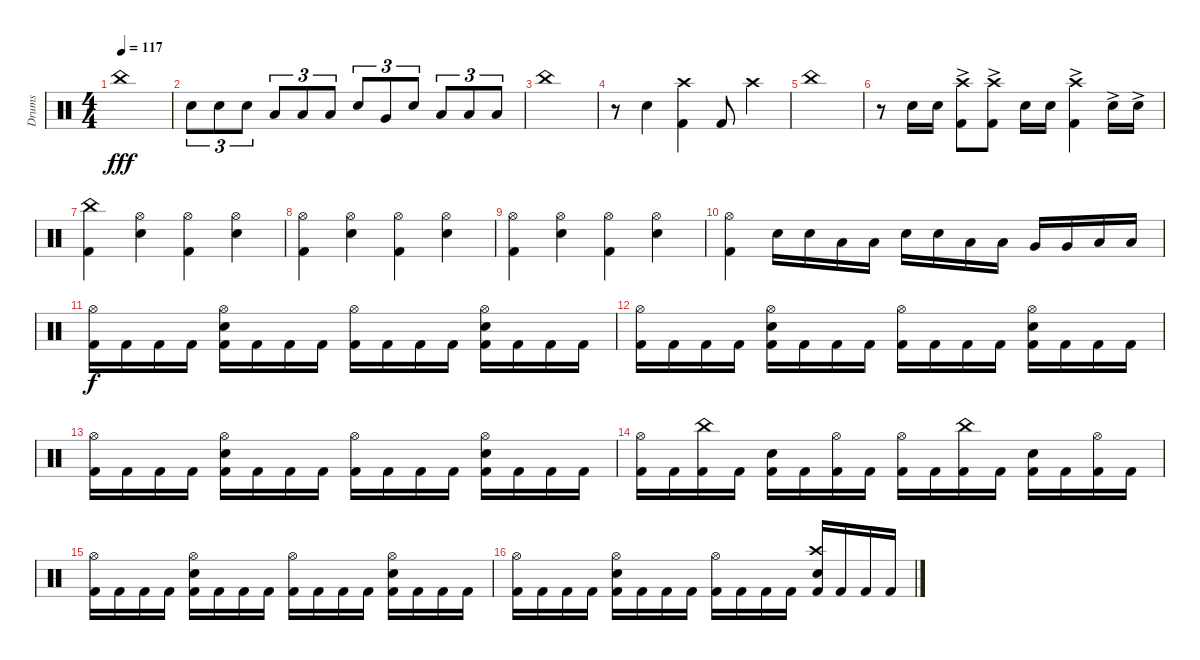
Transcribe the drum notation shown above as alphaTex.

\track ("Drums" "Drums") {instrument percussion}
\staff {score}
\articulation defaults
\ts (4 4)
\tempo 117
\clef neutral
\ks c "China (hit)".1{dy fff}
|
"Snare (hit) 2".8{tu (3 2)} "Snare (hit) 2".8{tu (3 2)} "Snare (hit) 2".8{tu (3 2)} "Low Tom (hit)".8{tu (3 2)} "Low Tom (hit)".8{tu (3 2)} "Low Tom (hit)".8{tu (3 2)} "Snare (hit) 2".8{tu (3 2)} "Very Low Tom (hit)".8{tu (3 2)} "Snare (hit) 2".8{tu (3 2)} "Low Floor Tom (hit)".8{tu (3 2)} "Low Floor Tom (hit)".8{tu (3 2)} "Low Floor Tom (hit)".8{tu (3 2)} |
"China (hit)".1 |
r.8 "Snare (hit) 2".4 ("Crash high (hit)" "Kick (hit) 2").4 "Kick (hit) 2".8 "Crash high (hit)".4 |
"China (hit)".1 |
r.8 "Snare (hit) 2".16 "Snare (hit) 2".16 ("Crash high (hit)"{ac} "Kick (hit) 2"{ac}).8 ("Crash high (hit)"{ac} "Kick (hit) 2"{ac}).8 "Snare (hit) 2".16 "Snare (hit) 2".16 ("Crash high (hit)"{ac} "Kick (hit) 2"{ac}).4 "Snare (hit) 2"{ac}.16 "Snare (hit) 2"{ac}.16 |
("China (hit)" "Kick (hit) 2").4 ("Hi-Hat (open)" "Snare (hit) 2").4 ("Hi-Hat (open)" "Kick (hit) 2").4 ("Hi-Hat (open)" "Snare (hit) 2").4 |
("Hi-Hat (open)" "Kick (hit) 2").4 ("Hi-Hat (open)" "Snare (hit) 2").4 ("Hi-Hat (open)" "Kick (hit) 2").4 ("Hi-Hat (open)" "Snare (hit) 2").4 |
("Hi-Hat (open)" "Kick (hit) 2").4 ("Hi-Hat (open)" "Snare (hit) 2").4 ("Hi-Hat (open)" "Kick (hit) 2").4 ("Hi-Hat (open)" "Snare (hit) 2").4 |
("Hi-Hat (open)" "Kick (hit) 2").4 "Snare (hit) 2".16 "Snare (hit) 2".16 "Low Tom (hit)".16 "Low Tom (hit)".16 "Snare (hit) 2".16 "Snare (hit) 2".16 "Low Tom (hit)".16 "Low Tom (hit)".16 "Very Low Tom (hit)".16 "Very Low Tom (hit)".16 "Low Floor Tom (hit)".16 "Low Floor Tom (hit)".16 |
("Hi-Hat (open)" "Kick (hit) 2").16{dy f} "Kick (hit) 2".16 "Kick (hit) 2".16 "Kick (hit) 2".16 ("Hi-Hat (open)" "Snare (hit) 2" "Kick (hit) 2").16 "Kick (hit) 2".16 "Kick (hit) 2".16 "Kick (hit) 2".16 ("Hi-Hat (open)" "Kick (hit) 2").16 "Kick (hit) 2".16 "Kick (hit) 2".16 "Kick (hit) 2".16 ("Hi-Hat (open)" "Snare (hit) 2" "Kick (hit) 2").16 "Kick (hit) 2".16 "Kick (hit) 2".16 "Kick (hit) 2".16 |
("Hi-Hat (open)" "Kick (hit) 2").16 "Kick (hit) 2".16 "Kick (hit) 2".16 "Kick (hit) 2".16 ("Hi-Hat (open)" "Snare (hit) 2" "Kick (hit) 2").16 "Kick (hit) 2".16 "Kick (hit) 2".16 "Kick (hit) 2".16 ("Hi-Hat (open)" "Kick (hit) 2").16 "Kick (hit) 2".16 "Kick (hit) 2".16 "Kick (hit) 2".16 ("Hi-Hat (open)" "Snare (hit) 2" "Kick (hit) 2").16 "Kick (hit) 2".16 "Kick (hit) 2".16 "Kick (hit) 2".16 |
("Hi-Hat (open)" "Kick (hit) 2").16 "Kick (hit) 2".16 "Kick (hit) 2".16 "Kick (hit) 2".16 ("Hi-Hat (open)" "Snare (hit) 2" "Kick (hit) 2").16 "Kick (hit) 2".16 "Kick (hit) 2".16 "Kick (hit) 2".16 ("Hi-Hat (open)" "Kick (hit) 2").16 "Kick (hit) 2".16 "Kick (hit) 2".16 "Kick (hit) 2".16 ("Hi-Hat (open)" "Snare (hit) 2" "Kick (hit) 2").16 "Kick (hit) 2".16 "Kick (hit) 2".16 "Kick (hit) 2".16 |
("Hi-Hat (open)" "Kick (hit) 2").16 "Kick (hit) 2".16 ("China (hit)" "Kick (hit) 2").16 "Kick (hit) 2".16 ("Snare (hit) 2" "Kick (hit) 2").16 "Kick (hit) 2".16 ("Hi-Hat (open)" "Kick (hit) 2").16 "Kick (hit) 2".16 ("Hi-Hat (open)" "Kick (hit) 2").16 "Kick (hit) 2".16 ("China (hit)" "Kick (hit) 2").16 "Kick (hit) 2".16 ("Snare (hit) 2" "Kick (hit) 2").16 "Kick (hit) 2".16 ("Hi-Hat (open)" "Kick (hit) 2").16 "Kick (hit) 2".16 |
("Hi-Hat (open)" "Kick (hit) 2").16 "Kick (hit) 2".16 "Kick (hit) 2".16 "Kick (hit) 2".16 ("Hi-Hat (open)" "Snare (hit) 2" "Kick (hit) 2").16 "Kick (hit) 2".16 "Kick (hit) 2".16 "Kick (hit) 2".16 ("Hi-Hat (open)" "Kick (hit) 2").16 "Kick (hit) 2".16 "Kick (hit) 2".16 "Kick (hit) 2".16 ("Hi-Hat (open)" "Snare (hit) 2" "Kick (hit) 2").16 "Kick (hit) 2".16 "Kick (hit) 2".16 "Kick (hit) 2".16 |
("Hi-Hat (open)" "Kick (hit) 2").16 "Kick (hit) 2".16 "Kick (hit) 2".16 "Kick (hit) 2".16 ("Hi-Hat (open)" "Snare (hit) 2" "Kick (hit) 2").16 "Kick (hit) 2".16 "Kick (hit) 2".16 "Kick (hit) 2".16 ("Hi-Hat (open)" "Kick (hit) 2").16 "Kick (hit) 2".16 "Kick (hit) 2".16 "Kick (hit) 2".16 ("Crash high (hit)" "Snare (hit) 2" "Kick (hit) 2").16 "Kick (hit) 2".16 "Kick (hit) 2".16 "Kick (hit) 2".16
